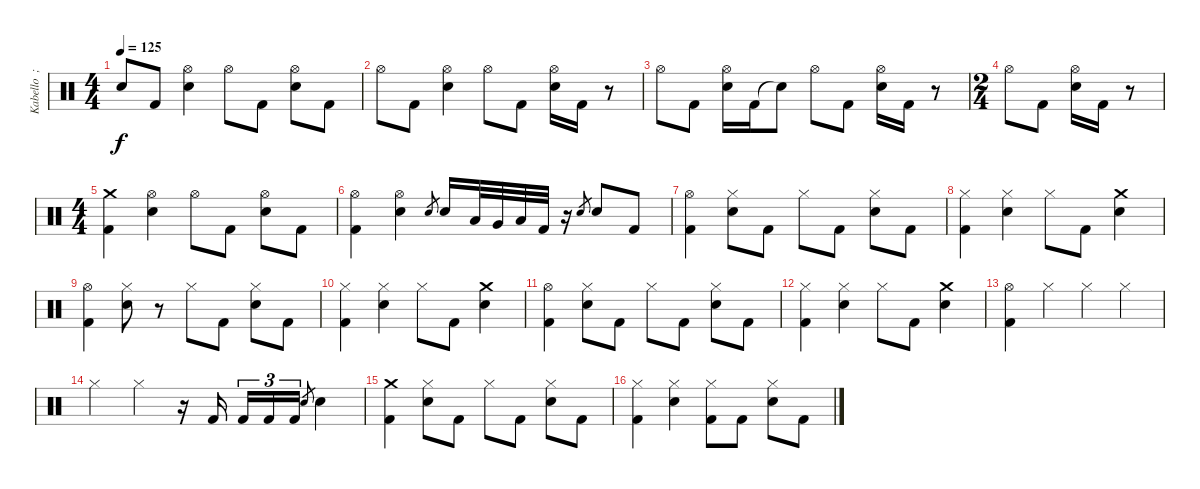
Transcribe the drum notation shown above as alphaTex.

\track ("Kabello  ;-)" "Kabello  ;") {instrument percussion}
\staff {score}
\articulation defaults
\ts (4 4)
\tempo 125
\clef neutral
\ks c "Snare (hit)"{t}.8{dy f} "Kick (hit) 2".8
("Hi-Hat (open)" "Electric Snare (hit)").4 "Hi-Hat (open)".8 "Kick (hit) 2".8 ("Hi-Hat (open)" "Electric Snare (hit)").8 "Kick (hit) 2".8 |
"Hi-Hat (open)".8 "Kick (hit) 2".8 ("Hi-Hat (open)" "Electric Snare (hit)").4 "Hi-Hat (open)".8 "Kick (hit) 2".8 ("Hi-Hat (open)" "Electric Snare (hit)").16 "Kick (hit) 2".16 r.8 |
"Hi-Hat (open)".8 "Kick (hit) 2".8 ("Hi-Hat (open)" "Electric Snare (hit)").16 "Kick (hit) 2".16 "Snare (hit)"{t}.8 "Hi-Hat (open)".8 "Kick (hit) 2".8 ("Hi-Hat (open)" "Electric Snare (hit)").16 "Kick (hit) 2".16 r.8 |
\ts (2 4)
"Hi-Hat (open)".8 "Kick (hit) 2".8 ("Hi-Hat (open)" "Electric Snare (hit)").16 "Kick (hit) 2".16 r.8 |
\ts (4 4)
("Crash medium (hit)" "Kick (hit) 2").4 ("Hi-Hat (open)" "Electric Snare (hit)").4 "Hi-Hat (open)".8 "Kick (hit) 2".8 ("Hi-Hat (open)" "Electric Snare (hit)").8 "Kick (hit) 2".8 |
("Hi-Hat (open)" "Kick (hit) 2").4 ("Hi-Hat (open)" "Electric Snare (hit)").4 "Electric Snare (hit)".8{gr} "Electric Snare (hit)".16 "Low Tom (hit)".32 "Very Low Tom (hit)".32 "Low Floor Tom (hit)".32 "Kick (hit) 2".32 r.16 "Electric Snare (hit)".8{gr} "Electric Snare (hit)".8 "Kick (hit) 2".8 |
("Hi-Hat (open)" "Kick (hit) 2").4 ("Hi-Hat (closed)" "Electric Snare (hit)").8 "Kick (hit) 2".8 "Hi-Hat (closed)".8 "Kick (hit) 2".8 ("Hi-Hat (closed)" "Electric Snare (hit)").8 "Kick (hit) 2".8 |
("Hi-Hat (closed)" "Kick (hit) 2").4 ("Hi-Hat (closed)" "Electric Snare (hit)").4 "Hi-Hat (closed)".8 "Kick (hit) 2".8 ("Crash medium (hit)" "Electric Snare (hit)").4 |
("Hi-Hat (open)" "Kick (hit) 2").4 ("Hi-Hat (closed)" "Electric Snare (hit)").8 r.8 "Hi-Hat (closed)".8 "Kick (hit) 2".8 ("Hi-Hat (closed)" "Electric Snare (hit)").8 "Kick (hit) 2".8 |
("Hi-Hat (closed)" "Kick (hit) 2").4 ("Hi-Hat (closed)" "Electric Snare (hit)").4 "Hi-Hat (closed)".8 "Kick (hit) 2".8 ("Crash medium (hit)" "Electric Snare (hit)").4 |
("Hi-Hat (open)" "Kick (hit) 2").4 ("Hi-Hat (closed)" "Electric Snare (hit)").8 "Kick (hit) 2".8 "Hi-Hat (closed)".8 "Kick (hit) 2".8 ("Hi-Hat (closed)" "Electric Snare (hit)").8 "Kick (hit) 2".8 |
("Hi-Hat (closed)" "Kick (hit) 2").4 ("Hi-Hat (closed)" "Electric Snare (hit)").4 "Hi-Hat (closed)".8 "Kick (hit) 2".8 ("Crash medium (hit)" "Electric Snare (hit)").4 |
("Hi-Hat (open)" "Kick (hit) 2").4 "Hi-Hat (closed)".4 "Hi-Hat (closed)".4 "Hi-Hat (closed)".4 |
"Hi-Hat (closed)".4 "Hi-Hat (closed)".4 r.16 "Kick (hit) 2".16 "Kick (hit) 2".16{tu (3 2)} "Kick (hit) 2".16{tu (3 2)} "Kick (hit) 2".16{tu (3 2)} "Electric Snare (hit)".8{gr} "Electric Snare (hit)".4 |
("Crash medium (hit)" "Kick (hit) 2").4 ("Hi-Hat (closed)" "Electric Snare (hit)").8 "Kick (hit) 2".8 "Hi-Hat (closed)".8 "Kick (hit) 2".8 ("Hi-Hat (closed)" "Electric Snare (hit)").8 "Kick (hit) 2".8 |
("Hi-Hat (closed)" "Kick (hit) 2").4 ("Hi-Hat (closed)" "Electric Snare (hit)").4 ("Hi-Hat (closed)" "Kick (hit) 2").8 "Kick (hit) 2".8 ("Hi-Hat (closed)" "Electric Snare (hit)").8 "Kick (hit) 2".8
